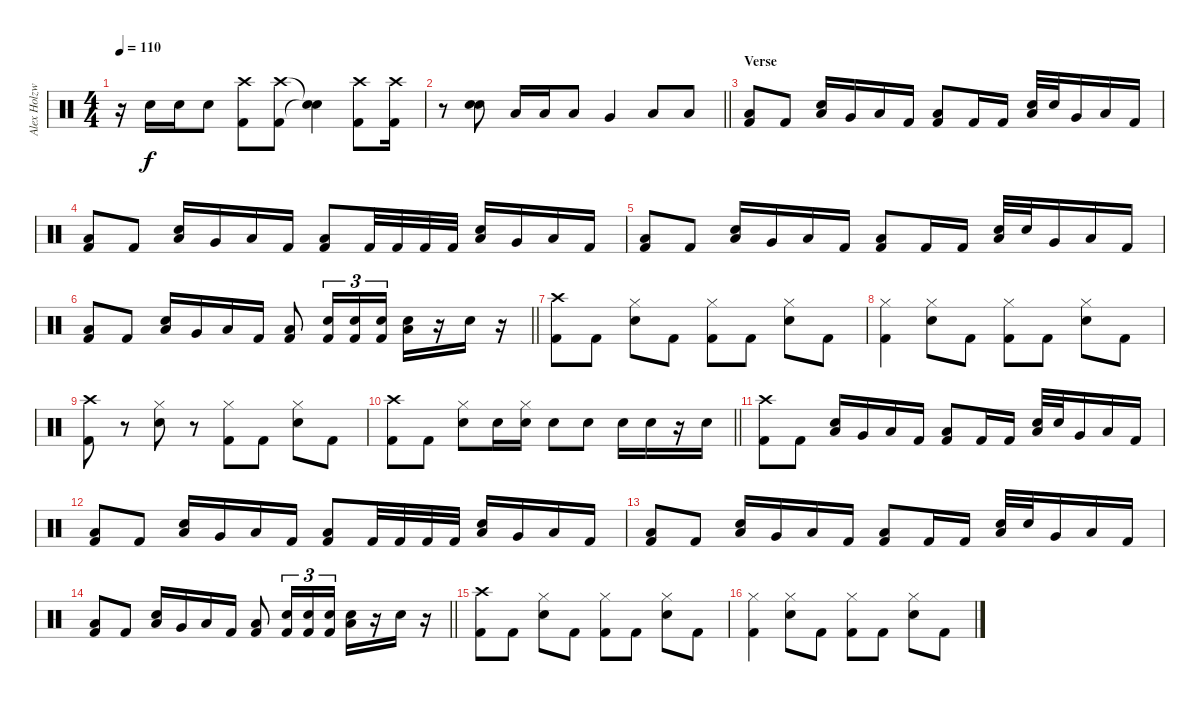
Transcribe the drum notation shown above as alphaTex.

\track ("Alex Holzwarth (Drums)" "Alex Holzw") {instrument percussion}
\staff {score}
\articulation defaults
\ts (4 4)
\tempo 110
\clef neutral
\ks c
r.16{dy f} "Electric Snare (hit)".16 "Electric Snare (hit)".16 "Electric Snare (hit)".8 ("Crash high (hit)" "Kick (hit) 2").8 ("Crash high (hit)" "Kick (hit) 2").8 ("Snare (hit)"{t} "Snare (hit)"{t}).4 ("Crash high (hit)" "Kick (hit) 2").8 ("Crash high (hit)" "Kick (hit) 2").16 |
\barLineRight lightlight
r.8 ("Electric Snare (hit)" "Electric Snare (hit)").8 "Low Tom (hit)".16 "Low Tom (hit)".16 "Low Tom (hit)".8 "Very Low Tom (hit)".4 "Low Floor Tom (hit)".8 "Low Floor Tom (hit)".8 |
\section ("" "Verse")
("Low Tom (hit)" "Kick (hit) 2").8 "Kick (hit) 2".8 ("Low Tom (hit)" "Electric Snare (hit)").16 "Very Low Tom (hit)".16 "Low Floor Tom (hit)".16 "Kick (hit) 2".16 ("Low Tom (hit)" "Kick (hit) 2").8 "Kick (hit) 2".16 "Kick (hit) 2".16 ("Low Tom (hit)" "Electric Snare (hit)").32 "Electric Snare (hit)".32 "Very Low Tom (hit)".16 "Low Floor Tom (hit)".16 "Kick (hit) 2".16 |
("Low Tom (hit)" "Kick (hit) 2").8 "Kick (hit) 2".8 ("Low Tom (hit)" "Electric Snare (hit)").16 "Very Low Tom (hit)".16 "Low Floor Tom (hit)".16 "Kick (hit) 2".16 ("Low Tom (hit)" "Kick (hit) 2").8 "Kick (hit) 2".32 "Kick (hit) 2".32 "Kick (hit) 2".32 "Kick (hit) 2".32 ("Low Tom (hit)" "Electric Snare (hit)").16 "Very Low Tom (hit)".16 "Low Floor Tom (hit)".16 "Kick (hit) 2".16 |
("Low Tom (hit)" "Kick (hit) 2").8 "Kick (hit) 2".8 ("Low Tom (hit)" "Electric Snare (hit)").16 "Very Low Tom (hit)".16 "Low Floor Tom (hit)".16 "Kick (hit) 2".16 ("Low Tom (hit)" "Kick (hit) 2").8 "Kick (hit) 2".16 "Kick (hit) 2".16 ("Low Tom (hit)" "Electric Snare (hit)").32 "Electric Snare (hit)".32 "Very Low Tom (hit)".16 "Low Floor Tom (hit)".16 "Kick (hit) 2".16 |
\barLineRight lightlight
("Low Tom (hit)" "Kick (hit) 2").8 "Kick (hit) 2".8 ("Low Tom (hit)" "Electric Snare (hit)").16 "Very Low Tom (hit)".16 "Low Floor Tom (hit)".16 "Kick (hit) 2".16 ("Low Tom (hit)" "Kick (hit) 2").8 ("Electric Snare (hit)" "Kick (hit) 2").16{tu (3 2)} ("Electric Snare (hit)" "Kick (hit) 2").16{tu (3 2)} ("Electric Snare (hit)" "Kick (hit) 2").16{tu (3 2)} ("Low Tom (hit)" "Electric Snare (hit)").16 r.16 "Electric Snare (hit)".16 r.16 |
("Crash high (hit)" "Kick (hit) 2").8 "Kick (hit) 2".8 ("Hi-Hat (closed)" "Electric Snare (hit)").8 "Kick (hit) 2".8 ("Hi-Hat (closed)" "Kick (hit) 2").8 "Kick (hit) 2".8 ("Hi-Hat (closed)" "Electric Snare (hit)").8 "Kick (hit) 2".8 |
("Hi-Hat (closed)" "Kick (hit) 2").4 ("Hi-Hat (closed)" "Electric Snare (hit)").8 "Kick (hit) 2".8 ("Hi-Hat (closed)" "Kick (hit) 2").8 "Kick (hit) 2".8 ("Hi-Hat (closed)" "Electric Snare (hit)").8 "Kick (hit) 2".8 |
("Crash high (hit)" "Kick (hit) 2").8 r.8 ("Hi-Hat (closed)" "Electric Snare (hit)").8 r.8 ("Hi-Hat (closed)" "Kick (hit) 2").8 "Kick (hit) 2".8 ("Hi-Hat (closed)" "Electric Snare (hit)").8 "Kick (hit) 2".8 |
\barLineRight lightlight
("Crash high (hit)" "Kick (hit) 2").8 "Kick (hit) 2".8 ("Hi-Hat (closed)" "Electric Snare (hit)").8 "Electric Snare (hit)".16 ("Hi-Hat (closed)" "Electric Snare (hit)").16 "Electric Snare (hit)".8 "Electric Snare (hit)".8 "Electric Snare (hit)".16 "Electric Snare (hit)".16 r.16 "Electric Snare (hit)".16 |
("Crash high (hit)" "Kick (hit) 2").8 "Kick (hit) 2".8 ("Low Tom (hit)" "Electric Snare (hit)").16 "Very Low Tom (hit)".16 "Low Floor Tom (hit)".16 "Kick (hit) 2".16 ("Low Tom (hit)" "Kick (hit) 2").8 "Kick (hit) 2".16 "Kick (hit) 2".16 ("Low Tom (hit)" "Electric Snare (hit)").32 "Electric Snare (hit)".32 "Very Low Tom (hit)".16 "Low Floor Tom (hit)".16 "Kick (hit) 2".16 |
("Low Tom (hit)" "Kick (hit) 2").8 "Kick (hit) 2".8 ("Low Tom (hit)" "Electric Snare (hit)").16 "Very Low Tom (hit)".16 "Low Floor Tom (hit)".16 "Kick (hit) 2".16 ("Low Tom (hit)" "Kick (hit) 2").8 "Kick (hit) 2".32 "Kick (hit) 2".32 "Kick (hit) 2".32 "Kick (hit) 2".32 ("Low Tom (hit)" "Electric Snare (hit)").16 "Very Low Tom (hit)".16 "Low Floor Tom (hit)".16 "Kick (hit) 2".16 |
("Low Tom (hit)" "Kick (hit) 2").8 "Kick (hit) 2".8 ("Low Tom (hit)" "Electric Snare (hit)").16 "Very Low Tom (hit)".16 "Low Floor Tom (hit)".16 "Kick (hit) 2".16 ("Low Tom (hit)" "Kick (hit) 2").8 "Kick (hit) 2".16 "Kick (hit) 2".16 ("Low Tom (hit)" "Electric Snare (hit)").32 "Electric Snare (hit)".32 "Very Low Tom (hit)".16 "Low Floor Tom (hit)".16 "Kick (hit) 2".16 |
\barLineRight lightlight
("Low Tom (hit)" "Kick (hit) 2").8 "Kick (hit) 2".8 ("Low Tom (hit)" "Electric Snare (hit)").16 "Very Low Tom (hit)".16 "Low Floor Tom (hit)".16 "Kick (hit) 2".16 ("Low Tom (hit)" "Kick (hit) 2").8 ("Electric Snare (hit)" "Kick (hit) 2").16{tu (3 2)} ("Electric Snare (hit)" "Kick (hit) 2").16{tu (3 2)} ("Electric Snare (hit)" "Kick (hit) 2").16{tu (3 2)} ("Low Tom (hit)" "Electric Snare (hit)").16 r.16 "Electric Snare (hit)".16 r.16 |
("Crash high (hit)" "Kick (hit) 2").8 "Kick (hit) 2".8 ("Hi-Hat (closed)" "Electric Snare (hit)").8 "Kick (hit) 2".8 ("Hi-Hat (closed)" "Kick (hit) 2").8 "Kick (hit) 2".8 ("Hi-Hat (closed)" "Electric Snare (hit)").8 "Kick (hit) 2".8 |
("Hi-Hat (closed)" "Kick (hit) 2").4 ("Hi-Hat (closed)" "Electric Snare (hit)").8 "Kick (hit) 2".8 ("Hi-Hat (closed)" "Kick (hit) 2").8 "Kick (hit) 2".8 ("Hi-Hat (closed)" "Electric Snare (hit)").8 "Kick (hit) 2".8
